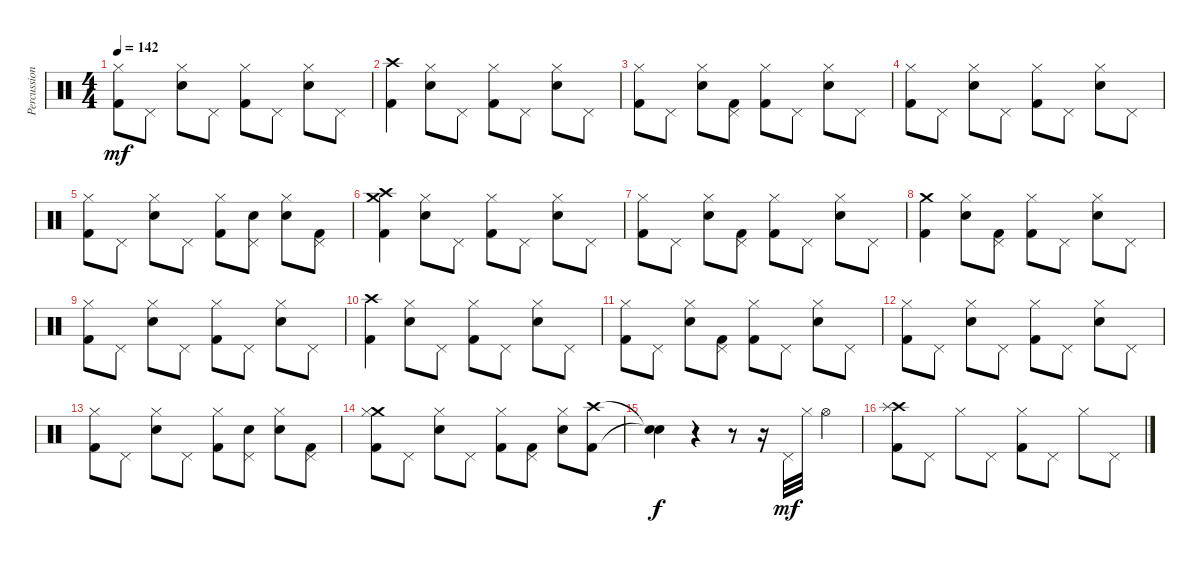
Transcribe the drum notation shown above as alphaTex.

\track ("Percussion" "Percussion") {instrument percussion}
\staff {score}
\articulation defaults
\ts (4 4)
\tempo 142
\clef neutral
\ks c
("Hi-Hat (closed)" "Kick (hit) 2").8{dy mf} "Pedal Hi-Hat (hit)".8 ("Snare (hit) 2" "Hi-Hat (closed)").8 "Pedal Hi-Hat (hit)".8 ("Hi-Hat (closed)" "Kick (hit) 2").8 "Pedal Hi-Hat (hit)".8 ("Snare (hit) 2" "Hi-Hat (closed)").8 "Pedal Hi-Hat (hit)".8 |
("Crash high (hit)" "Kick (hit) 2").4 ("Snare (hit) 2" "Hi-Hat (closed)").8 "Pedal Hi-Hat (hit)".8 ("Hi-Hat (closed)" "Kick (hit) 2").8 "Pedal Hi-Hat (hit)".8 ("Snare (hit) 2" "Hi-Hat (closed)").8 "Pedal Hi-Hat (hit)".8 |
("Hi-Hat (closed)" "Kick (hit) 2").8 "Pedal Hi-Hat (hit)".8 ("Snare (hit) 2" "Hi-Hat (closed)").8 ("Pedal Hi-Hat (hit)" "Kick (hit) 2").8 ("Hi-Hat (closed)" "Kick (hit) 2").8 "Pedal Hi-Hat (hit)".8 ("Snare (hit) 2" "Hi-Hat (closed)").8 "Pedal Hi-Hat (hit)".8 |
("Hi-Hat (closed)" "Kick (hit) 2").8 "Pedal Hi-Hat (hit)".8 ("Snare (hit) 2" "Hi-Hat (closed)").8 "Pedal Hi-Hat (hit)".8 ("Hi-Hat (closed)" "Kick (hit) 2").8 "Pedal Hi-Hat (hit)".8 ("Snare (hit) 2" "Hi-Hat (closed)").8 "Pedal Hi-Hat (hit)".8 |
("Hi-Hat (closed)" "Kick (hit) 2").8 "Pedal Hi-Hat (hit)".8 ("Snare (hit) 2" "Hi-Hat (closed)").8 "Pedal Hi-Hat (hit)".8 ("Hi-Hat (closed)" "Kick (hit) 2").8 ("Snare (hit) 2" "Pedal Hi-Hat (hit)").8 ("Snare (hit) 2" "Hi-Hat (closed)").8 ("Pedal Hi-Hat (hit)" "Kick (hit) 2").8 |
("Crash high (hit)" "Crash medium (hit)" "Kick (hit) 2").4 ("Snare (hit) 2" "Hi-Hat (closed)").8 "Pedal Hi-Hat (hit)".8 ("Hi-Hat (closed)" "Kick (hit) 2").8 "Pedal Hi-Hat (hit)".8 ("Snare (hit) 2" "Hi-Hat (closed)").8 "Pedal Hi-Hat (hit)".8 |
("Hi-Hat (closed)" "Kick (hit) 2").8 "Pedal Hi-Hat (hit)".8 ("Snare (hit) 2" "Hi-Hat (closed)").8 ("Pedal Hi-Hat (hit)" "Kick (hit) 2").8 ("Hi-Hat (closed)" "Kick (hit) 2").8 "Pedal Hi-Hat (hit)".8 ("Snare (hit) 2" "Hi-Hat (closed)").8 "Pedal Hi-Hat (hit)".8 |
("Crash medium (hit)" "Kick (hit) 2").4 ("Snare (hit) 2" "Hi-Hat (closed)").8 ("Pedal Hi-Hat (hit)" "Kick (hit) 2").8 ("Hi-Hat (closed)" "Kick (hit) 2").8 "Pedal Hi-Hat (hit)".8 ("Snare (hit) 2" "Hi-Hat (closed)").8 "Pedal Hi-Hat (hit)".8 |
("Hi-Hat (closed)" "Kick (hit) 2").8 "Pedal Hi-Hat (hit)".8 ("Snare (hit) 2" "Hi-Hat (closed)").8 "Pedal Hi-Hat (hit)".8 ("Hi-Hat (closed)" "Kick (hit) 2").8 "Pedal Hi-Hat (hit)".8 ("Snare (hit) 2" "Hi-Hat (closed)").8 "Pedal Hi-Hat (hit)".8 |
("Crash high (hit)" "Kick (hit) 2").4 ("Snare (hit) 2" "Hi-Hat (closed)").8 "Pedal Hi-Hat (hit)".8 ("Hi-Hat (closed)" "Kick (hit) 2").8 "Pedal Hi-Hat (hit)".8 ("Snare (hit) 2" "Hi-Hat (closed)").8 "Pedal Hi-Hat (hit)".8 |
("Hi-Hat (closed)" "Kick (hit) 2").8 "Pedal Hi-Hat (hit)".8 ("Snare (hit) 2" "Hi-Hat (closed)").8 ("Pedal Hi-Hat (hit)" "Kick (hit) 2").8 ("Hi-Hat (closed)" "Kick (hit) 2").8 "Pedal Hi-Hat (hit)".8 ("Snare (hit) 2" "Hi-Hat (closed)").8 "Pedal Hi-Hat (hit)".8 |
("Hi-Hat (closed)" "Kick (hit) 2").8 "Pedal Hi-Hat (hit)".8 ("Snare (hit) 2" "Hi-Hat (closed)").8 "Pedal Hi-Hat (hit)".8 ("Hi-Hat (closed)" "Kick (hit) 2").8 "Pedal Hi-Hat (hit)".8 ("Snare (hit) 2" "Hi-Hat (closed)").8 "Pedal Hi-Hat (hit)".8 |
("Hi-Hat (closed)" "Kick (hit) 2").8 "Pedal Hi-Hat (hit)".8 ("Snare (hit) 2" "Hi-Hat (closed)").8 "Pedal Hi-Hat (hit)".8 ("Hi-Hat (closed)" "Kick (hit) 2").8 ("Snare (hit) 2" "Pedal Hi-Hat (hit)").8 ("Snare (hit) 2" "Hi-Hat (closed)").8 ("Pedal Hi-Hat (hit)" "Kick (hit) 2").8 |
("Crash medium (hit)" "Hi-Hat (closed)" "Kick (hit) 2").8 "Pedal Hi-Hat (hit)".8 ("Snare (hit) 2" "Hi-Hat (closed)").8 "Pedal Hi-Hat (hit)".8 ("Hi-Hat (closed)" "Kick (hit) 2").8 ("Pedal Hi-Hat (hit)" "Kick (hit) 2").8 ("Snare (hit) 2" "Hi-Hat (closed)").8 ("Crash high (hit)" "Kick (hit) 2").8 |
("Snare (hit)"{t} "Snare (hit)"{t}).4{dy f} r.4 r.8 r.16 "Pedal Hi-Hat (hit)".32{dy mf} "Hi-Hat (closed)".32 "Hi-Hat (open)".4 |
("Crash high (hit)" "Splash (hit)" "Kick (hit) 2").8 "Pedal Hi-Hat (hit)".8 "Hi-Hat (closed)".8 "Pedal Hi-Hat (hit)".8 ("Hi-Hat (closed)" "Kick (hit) 2").8 "Pedal Hi-Hat (hit)".8 "Hi-Hat (closed)".8 "Pedal Hi-Hat (hit)".8
